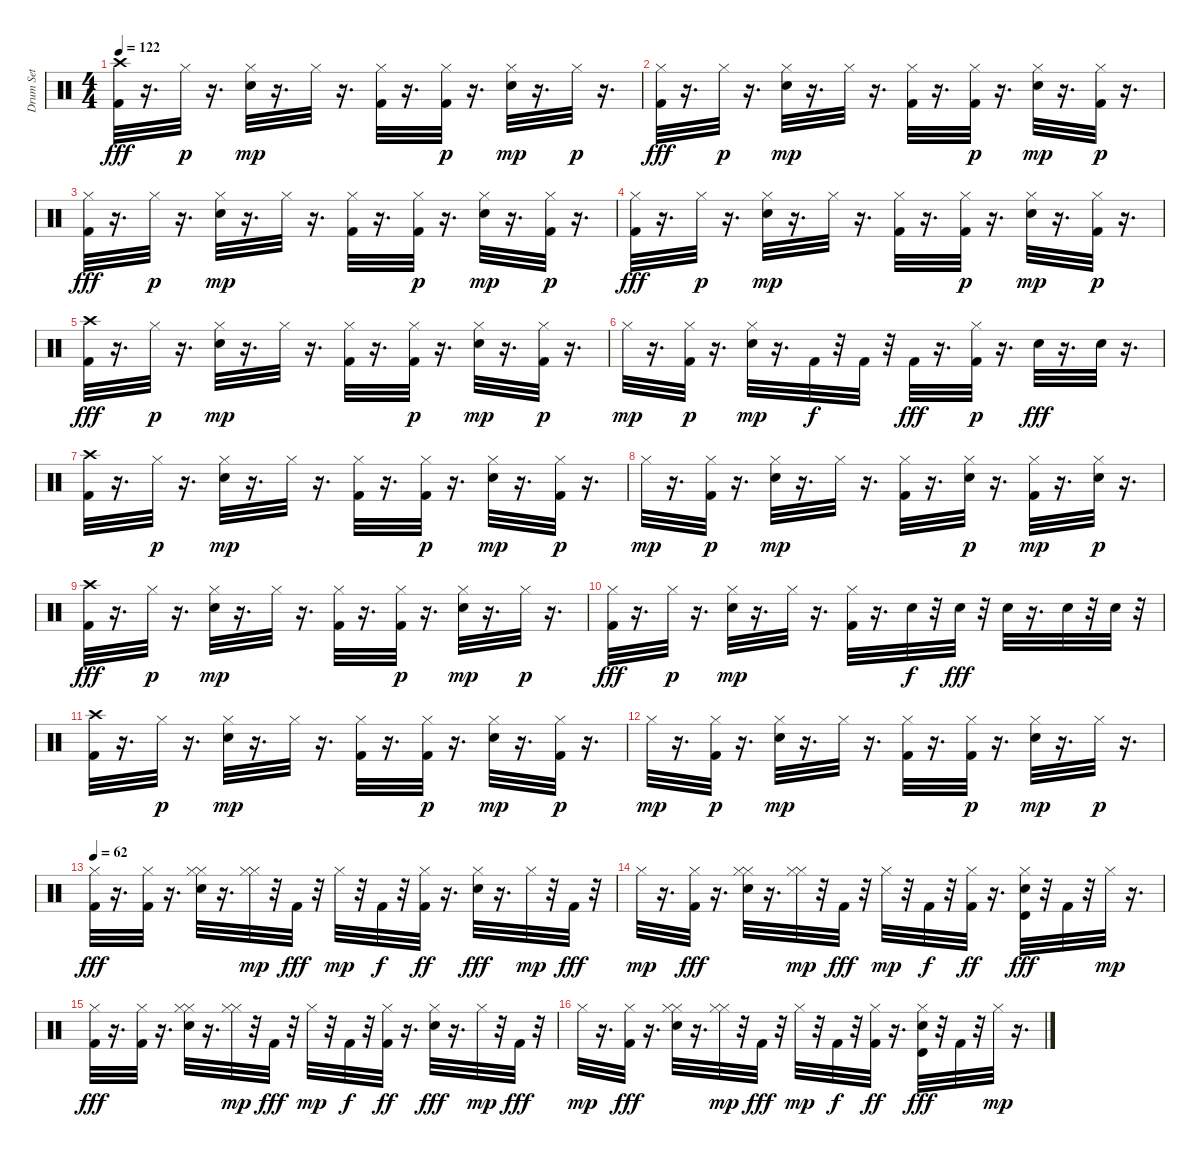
\track ("Drum Set" "Drum Set") {instrument percussion}
\staff {score}
\articulation defaults
\ts (4 4)
\tempo 122
\clef neutral
\ks c
("Crash high (hit)" "Kick (hit) 2").32{dy fff} r.16{d} "Hi-Hat (closed)".32{dy p} r.16{d} ("Electric Snare (hit)" "Hi-Hat (closed)").32{dy mp} r.16{d} "Hi-Hat (closed)".32 r.16{d} ("Kick (hit) 2" "Hi-Hat (closed)").32 r.16{d} ("Kick (hit) 2" "Hi-Hat (closed)").32{dy p} r.16{d} ("Electric Snare (hit)" "Hi-Hat (closed)").32{dy mp} r.16{d} "Hi-Hat (closed)".32{dy p} r.16{d} |
("Hi-Hat (closed)" "Kick (hit) 2").32{dy fff} r.16{d} "Hi-Hat (closed)".32{dy p} r.16{d} ("Electric Snare (hit)" "Hi-Hat (closed)").32{dy mp} r.16{d} "Hi-Hat (closed)".32 r.16{d} ("Kick (hit) 2" "Hi-Hat (closed)").32 r.16{d} ("Kick (hit) 2" "Hi-Hat (closed)").32{dy p} r.16{d} ("Electric Snare (hit)" "Hi-Hat (closed)").32{dy mp} r.16{d} ("Kick (hit) 2" "Hi-Hat (closed)").32{dy p} r.16{d} |
("Hi-Hat (closed)" "Kick (hit) 2").32{dy fff} r.16{d} "Hi-Hat (closed)".32{dy p} r.16{d} ("Electric Snare (hit)" "Hi-Hat (closed)").32{dy mp} r.16{d} "Hi-Hat (closed)".32 r.16{d} ("Kick (hit) 2" "Hi-Hat (closed)").32 r.16{d} ("Kick (hit) 2" "Hi-Hat (closed)").32{dy p} r.16{d} ("Electric Snare (hit)" "Hi-Hat (closed)").32{dy mp} r.16{d} ("Kick (hit) 2" "Hi-Hat (closed)").32{dy p} r.16{d} |
("Hi-Hat (closed)" "Kick (hit) 2").32{dy fff} r.16{d} "Hi-Hat (closed)".32{dy p} r.16{d} ("Electric Snare (hit)" "Hi-Hat (closed)").32{dy mp} r.16{d} "Hi-Hat (closed)".32 r.16{d} ("Kick (hit) 2" "Hi-Hat (closed)").32 r.16{d} ("Kick (hit) 2" "Hi-Hat (closed)").32{dy p} r.16{d} ("Electric Snare (hit)" "Hi-Hat (closed)").32{dy mp} r.16{d} ("Kick (hit) 2" "Hi-Hat (closed)").32{dy p} r.16{d} |
("Crash high (hit)" "Kick (hit) 2").32{dy fff} r.16{d} "Hi-Hat (closed)".32{dy p} r.16{d} ("Electric Snare (hit)" "Hi-Hat (closed)").32{dy mp} r.16{d} "Hi-Hat (closed)".32 r.16{d} ("Kick (hit) 2" "Hi-Hat (closed)").32 r.16{d} ("Kick (hit) 2" "Hi-Hat (closed)").32{dy p} r.16{d} ("Electric Snare (hit)" "Hi-Hat (closed)").32{dy mp} r.16{d} ("Kick (hit) 2" "Hi-Hat (closed)").32{dy p} r.16{d} |
"Hi-Hat (closed)".32{dy mp} r.16{d} ("Kick (hit) 2" "Hi-Hat (closed)").32{dy p} r.16{d} ("Electric Snare (hit)" "Hi-Hat (closed)").32{dy mp} r.16{d} "Kick (hit) 2".32{dy f} r.32 "Kick (hit) 2".32 r.32 "Kick (hit) 2".32{dy fff} r.16{d} ("Kick (hit) 2" "Hi-Hat (closed)").32{dy p} r.16{d} "Electric Snare (hit)".32{dy fff} r.16{d} "Electric Snare (hit)".32 r.16{d} |
("Crash high (hit)" "Kick (hit) 2").32 r.16{d} "Hi-Hat (closed)".32{dy p} r.16{d} ("Electric Snare (hit)" "Hi-Hat (closed)").32{dy mp} r.16{d} "Hi-Hat (closed)".32 r.16{d} ("Kick (hit) 2" "Hi-Hat (closed)").32 r.16{d} ("Kick (hit) 2" "Hi-Hat (closed)").32{dy p} r.16{d} ("Electric Snare (hit)" "Hi-Hat (closed)").32{dy mp} r.16{d} ("Kick (hit) 2" "Hi-Hat (closed)").32{dy p} r.16{d} |
"Hi-Hat (closed)".32{dy mp} r.16{d} ("Kick (hit) 2" "Hi-Hat (closed)").32{dy p} r.16{d} ("Electric Snare (hit)" "Hi-Hat (closed)").32{dy mp} r.16{d} "Hi-Hat (closed)".32 r.16{d} ("Kick (hit) 2" "Hi-Hat (closed)").32 r.16{d} ("Electric Snare (hit)" "Hi-Hat (closed)").32{dy p} r.16{d} ("Kick (hit) 2" "Hi-Hat (closed)").32{dy mp} r.16{d} ("Electric Snare (hit)" "Hi-Hat (closed)").32{dy p} r.16{d} |
("Crash high (hit)" "Kick (hit) 2").32{dy fff} r.16{d} "Hi-Hat (closed)".32{dy p} r.16{d} ("Electric Snare (hit)" "Hi-Hat (closed)").32{dy mp} r.16{d} "Hi-Hat (closed)".32 r.16{d} ("Kick (hit) 2" "Hi-Hat (closed)").32 r.16{d} ("Kick (hit) 2" "Hi-Hat (closed)").32{dy p} r.16{d} ("Electric Snare (hit)" "Hi-Hat (closed)").32{dy mp} r.16{d} "Hi-Hat (closed)".32{dy p} r.16{d} |
("Hi-Hat (closed)" "Kick (hit) 2").32{dy fff} r.16{d} "Hi-Hat (closed)".32{dy p} r.16{d} ("Electric Snare (hit)" "Hi-Hat (closed)").32{dy mp} r.16{d} "Hi-Hat (closed)".32 r.16{d} ("Kick (hit) 2" "Hi-Hat (closed)").32 r.16{d} "Electric Snare (hit)".32{dy f} r.32 "Electric Snare (hit)".32{dy fff} r.32 "Electric Snare (hit)".32 r.16{d} "Electric Snare (hit)".32 r.32 "Electric Snare (hit)".32 r.32 |
("Crash high (hit)" "Kick (hit) 2").32 r.16{d} "Hi-Hat (closed)".32{dy p} r.16{d} ("Electric Snare (hit)" "Hi-Hat (closed)").32{dy mp} r.16{d} "Hi-Hat (closed)".32 r.16{d} ("Kick (hit) 2" "Hi-Hat (closed)").32 r.16{d} ("Kick (hit) 2" "Hi-Hat (closed)").32{dy p} r.16{d} ("Electric Snare (hit)" "Hi-Hat (closed)").32{dy mp} r.16{d} ("Kick (hit) 2" "Hi-Hat (closed)").32{dy p} r.16{d} |
"Hi-Hat (closed)".32{dy mp} r.16{d} ("Kick (hit) 2" "Hi-Hat (closed)").32{dy p} r.16{d} ("Electric Snare (hit)" "Hi-Hat (closed)").32{dy mp} r.16{d} "Hi-Hat (closed)".32 r.16{d} ("Kick (hit) 2" "Hi-Hat (closed)").32 r.16{d} ("Kick (hit) 2" "Hi-Hat (closed)").32{dy p} r.16{d} ("Electric Snare (hit)" "Hi-Hat (closed)").32{dy mp} r.16{d} "Hi-Hat (closed)".32{dy p} r.16{d} |
\tempo 62
("Hi-Hat (closed)" "Kick (hit) 2").32{dy fff} r.16{d} ("Hi-Hat (closed)" "Kick (hit) 2").32 r.16{d} ("Hi-Hat (closed)" "Hi-Hat (closed)" "Electric Snare (hit)").32 r.16{d} ("Hi-Hat (closed)" "Hi-Hat (closed)").32{dy mp} r.32 "Kick (hit) 2".32{dy fff} r.32 "Hi-Hat (closed)".32{dy mp} r.32 "Kick (hit) 2".32{dy f} r.32 ("Hi-Hat (closed)" "Kick (hit) 2").32{dy ff} r.16{d} ("Hi-Hat (closed)" "Electric Snare (hit)").32{dy fff} r.16{d} "Hi-Hat (closed)".32{dy mp} r.32 "Kick (hit) 2".32{dy fff} r.32 |
"Hi-Hat (closed)".32{dy mp} r.16{d} ("Hi-Hat (closed)" "Kick (hit) 2").32{dy fff} r.16{d} ("Hi-Hat (closed)" "Hi-Hat (closed)" "Electric Snare (hit)").32 r.16{d} ("Hi-Hat (closed)" "Hi-Hat (closed)").32{dy mp} r.32 "Kick (hit) 2".32{dy fff} r.32 "Hi-Hat (closed)".32{dy mp} r.32 "Kick (hit) 2".32{dy f} r.32 ("Hi-Hat (closed)" "Kick (hit) 2").32{dy ff} r.16{d} ("Timbale high (hit)" "Hi-Hat (closed)" "Electric Snare (hit)").32{dy fff} r.32 "Kick (hit) 2".32 r.32 "Hi-Hat (closed)".32{dy mp} r.16{d} |
("Hi-Hat (closed)" "Kick (hit) 2").32{dy fff} r.16{d} ("Hi-Hat (closed)" "Kick (hit) 2").32 r.16{d} ("Hi-Hat (closed)" "Hi-Hat (closed)" "Electric Snare (hit)").32 r.16{d} ("Hi-Hat (closed)" "Hi-Hat (closed)").32{dy mp} r.32 "Kick (hit) 2".32{dy fff} r.32 "Hi-Hat (closed)".32{dy mp} r.32 "Kick (hit) 2".32{dy f} r.32 ("Hi-Hat (closed)" "Kick (hit) 2").32{dy ff} r.16{d} ("Hi-Hat (closed)" "Electric Snare (hit)").32{dy fff} r.16{d} "Hi-Hat (closed)".32{dy mp} r.32 "Kick (hit) 2".32{dy fff} r.32 |
"Hi-Hat (closed)".32{dy mp} r.16{d} ("Hi-Hat (closed)" "Kick (hit) 2").32{dy fff} r.16{d} ("Hi-Hat (closed)" "Hi-Hat (closed)" "Electric Snare (hit)").32 r.16{d} ("Hi-Hat (closed)" "Hi-Hat (closed)").32{dy mp} r.32 "Kick (hit) 2".32{dy fff} r.32 "Hi-Hat (closed)".32{dy mp} r.32 "Kick (hit) 2".32{dy f} r.32 ("Hi-Hat (closed)" "Kick (hit) 2").32{dy ff} r.16{d} ("Timbale high (hit)" "Hi-Hat (closed)" "Electric Snare (hit)").32{dy fff} r.32 "Kick (hit) 2".32 r.32 "Hi-Hat (closed)".32{dy mp} r.16{d}
